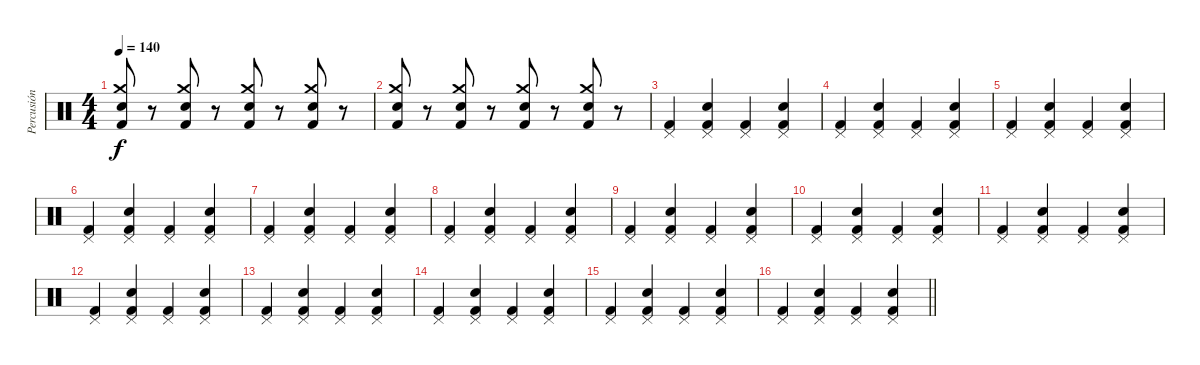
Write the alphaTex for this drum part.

\track ("Percusión" "Percusión") {instrument percussion}
\staff {score}
\articulation defaults
\ts (4 4)
\tempo 140
\clef neutral
\ks c
("Kick (hit) 2" "Crash medium (hit)" "Electric Snare (hit)").8{dy f} r.8 ("Kick (hit) 2" "Crash medium (hit)" "Electric Snare (hit)").8 r.8 ("Kick (hit) 2" "Crash medium (hit)" "Electric Snare (hit)").8 r.8 ("Kick (hit) 2" "Crash medium (hit)" "Electric Snare (hit)").8 r.8 |
("Kick (hit) 2" "Crash medium (hit)" "Electric Snare (hit)").8 r.8 ("Kick (hit) 2" "Crash medium (hit)" "Electric Snare (hit)").8 r.8 ("Kick (hit) 2" "Crash medium (hit)" "Electric Snare (hit)").8 r.8 ("Kick (hit) 2" "Crash medium (hit)" "Electric Snare (hit)").8 r.8 |
("Pedal Hi-Hat (hit)" "Kick (hit) 2").4 ("Pedal Hi-Hat (hit)" "Electric Snare (hit)" "Kick (hit) 2").4 ("Pedal Hi-Hat (hit)" "Kick (hit) 2").4 ("Pedal Hi-Hat (hit)" "Electric Snare (hit)" "Kick (hit) 2").4 |
("Pedal Hi-Hat (hit)" "Kick (hit) 2").4 ("Pedal Hi-Hat (hit)" "Electric Snare (hit)" "Kick (hit) 2").4 ("Pedal Hi-Hat (hit)" "Kick (hit) 2").4 ("Pedal Hi-Hat (hit)" "Electric Snare (hit)" "Kick (hit) 2").4 |
("Pedal Hi-Hat (hit)" "Kick (hit) 2").4 ("Pedal Hi-Hat (hit)" "Electric Snare (hit)" "Kick (hit) 2").4 ("Pedal Hi-Hat (hit)" "Kick (hit) 2").4 ("Pedal Hi-Hat (hit)" "Electric Snare (hit)" "Kick (hit) 2").4 |
("Pedal Hi-Hat (hit)" "Kick (hit) 2").4 ("Pedal Hi-Hat (hit)" "Electric Snare (hit)" "Kick (hit) 2").4 ("Pedal Hi-Hat (hit)" "Kick (hit) 2").4 ("Pedal Hi-Hat (hit)" "Electric Snare (hit)" "Kick (hit) 2").4 |
("Pedal Hi-Hat (hit)" "Kick (hit) 2").4 ("Pedal Hi-Hat (hit)" "Electric Snare (hit)" "Kick (hit) 2").4 ("Pedal Hi-Hat (hit)" "Kick (hit) 2").4 ("Pedal Hi-Hat (hit)" "Electric Snare (hit)" "Kick (hit) 2").4 |
("Pedal Hi-Hat (hit)" "Kick (hit) 2").4 ("Pedal Hi-Hat (hit)" "Electric Snare (hit)" "Kick (hit) 2").4 ("Pedal Hi-Hat (hit)" "Kick (hit) 2").4 ("Pedal Hi-Hat (hit)" "Electric Snare (hit)" "Kick (hit) 2").4 |
("Pedal Hi-Hat (hit)" "Kick (hit) 2").4 ("Pedal Hi-Hat (hit)" "Electric Snare (hit)" "Kick (hit) 2").4 ("Pedal Hi-Hat (hit)" "Kick (hit) 2").4 ("Pedal Hi-Hat (hit)" "Electric Snare (hit)" "Kick (hit) 2").4 |
("Pedal Hi-Hat (hit)" "Kick (hit) 2").4 ("Pedal Hi-Hat (hit)" "Electric Snare (hit)" "Kick (hit) 2").4 ("Pedal Hi-Hat (hit)" "Kick (hit) 2").4 ("Pedal Hi-Hat (hit)" "Electric Snare (hit)" "Kick (hit) 2").4 |
("Pedal Hi-Hat (hit)" "Kick (hit) 2").4 ("Pedal Hi-Hat (hit)" "Electric Snare (hit)" "Kick (hit) 2").4 ("Pedal Hi-Hat (hit)" "Kick (hit) 2").4 ("Pedal Hi-Hat (hit)" "Electric Snare (hit)" "Kick (hit) 2").4 |
("Pedal Hi-Hat (hit)" "Kick (hit) 2").4 ("Pedal Hi-Hat (hit)" "Electric Snare (hit)" "Kick (hit) 2").4 ("Pedal Hi-Hat (hit)" "Kick (hit) 2").4 ("Pedal Hi-Hat (hit)" "Electric Snare (hit)" "Kick (hit) 2").4 |
("Pedal Hi-Hat (hit)" "Kick (hit) 2").4 ("Pedal Hi-Hat (hit)" "Electric Snare (hit)" "Kick (hit) 2").4 ("Pedal Hi-Hat (hit)" "Kick (hit) 2").4 ("Pedal Hi-Hat (hit)" "Electric Snare (hit)" "Kick (hit) 2").4 |
("Pedal Hi-Hat (hit)" "Kick (hit) 2").4 ("Pedal Hi-Hat (hit)" "Electric Snare (hit)" "Kick (hit) 2").4 ("Pedal Hi-Hat (hit)" "Kick (hit) 2").4 ("Pedal Hi-Hat (hit)" "Electric Snare (hit)" "Kick (hit) 2").4 |
("Pedal Hi-Hat (hit)" "Kick (hit) 2").4 ("Pedal Hi-Hat (hit)" "Electric Snare (hit)" "Kick (hit) 2").4 ("Pedal Hi-Hat (hit)" "Kick (hit) 2").4 ("Pedal Hi-Hat (hit)" "Electric Snare (hit)" "Kick (hit) 2").4 |
\barLineRight lightlight
("Pedal Hi-Hat (hit)" "Kick (hit) 2").4 ("Pedal Hi-Hat (hit)" "Electric Snare (hit)" "Kick (hit) 2").4 ("Pedal Hi-Hat (hit)" "Kick (hit) 2").4 ("Pedal Hi-Hat (hit)" "Electric Snare (hit)" "Kick (hit) 2").4
